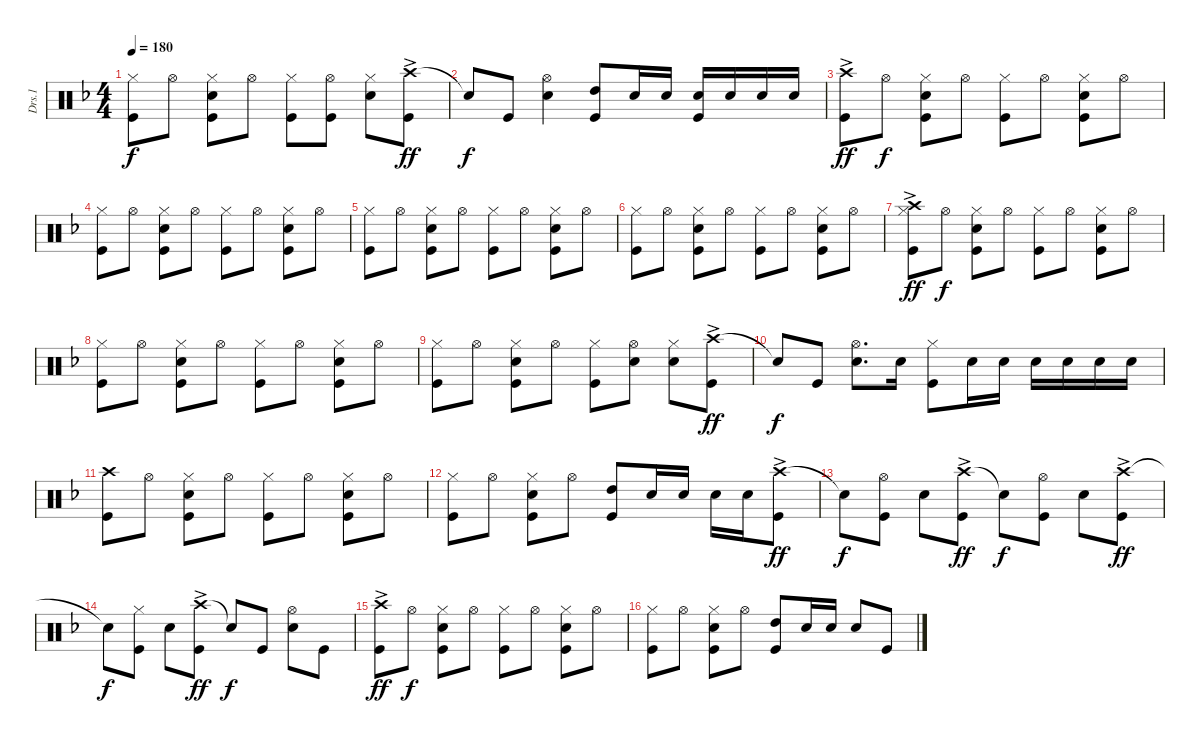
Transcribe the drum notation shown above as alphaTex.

\track ("Drs.1" "Drs.1") {instrument percussion}
\staff {score}
\articulation defaults
\ts (4 4)
\tempo 180
\clef neutral
\ks f
("Hi-Hat (closed)" "Kick (hit)").8{dy f} "Hi-Hat (open)".8 ("Hi-Hat (closed)" "Snare (hit) 2" "Kick (hit)").8 "Hi-Hat (open)".8 ("Hi-Hat (closed)" "Kick (hit)").8 ("Hi-Hat (open)" "Kick (hit)").8 ("Hi-Hat (closed)" "Snare (hit) 2").8 ("Crash high (hit)"{ac} "Kick (hit)").8{dy ff} |
"Snare (hit)"{t}.8{dy f} "Kick (hit)".8 ("Hi-Hat (open)" "Snare (hit) 2").4 ("High Tom (hit)" "Kick (hit)").8 "Snare (hit) 2".16 "Snare (hit) 2".16 ("Snare (hit) 2" "Kick (hit)").16 "Snare (hit) 2".16 "Snare (hit) 2".16 "Snare (hit) 2".16 |
("Crash high (hit)"{ac} "Kick (hit)").8{dy ff} "Hi-Hat (open)".8{dy f} ("Hi-Hat (closed)" "Snare (hit) 2" "Kick (hit)").8 "Hi-Hat (open)".8 ("Hi-Hat (closed)" "Kick (hit)").8 "Hi-Hat (open)".8 ("Hi-Hat (closed)" "Snare (hit) 2" "Kick (hit)").8 "Hi-Hat (open)".8 |
("Hi-Hat (closed)" "Kick (hit)").8 "Hi-Hat (open)".8 ("Hi-Hat (closed)" "Snare (hit) 2" "Kick (hit)").8 "Hi-Hat (open)".8 ("Hi-Hat (closed)" "Kick (hit)").8 "Hi-Hat (open)".8 ("Hi-Hat (closed)" "Snare (hit) 2" "Kick (hit)").8 "Hi-Hat (open)".8 |
("Hi-Hat (closed)" "Kick (hit)").8 "Hi-Hat (open)".8 ("Hi-Hat (closed)" "Snare (hit) 2" "Kick (hit)").8 "Hi-Hat (open)".8 ("Hi-Hat (closed)" "Kick (hit)").8 "Hi-Hat (open)".8 ("Hi-Hat (closed)" "Snare (hit) 2" "Kick (hit)").8 "Hi-Hat (open)".8 |
("Hi-Hat (closed)" "Kick (hit)").8 "Hi-Hat (open)".8 ("Hi-Hat (closed)" "Snare (hit) 2" "Kick (hit)").8 "Hi-Hat (open)".8 ("Hi-Hat (closed)" "Kick (hit)").8 "Hi-Hat (open)".8 ("Hi-Hat (closed)" "Snare (hit) 2" "Kick (hit)").8 "Hi-Hat (open)".8 |
("Hi-Hat (closed)" "Crash high (hit)"{ac} "Kick (hit)").8{dy ff} "Hi-Hat (open)".8{dy f} ("Hi-Hat (closed)" "Snare (hit) 2" "Kick (hit)").8 "Hi-Hat (open)".8 ("Hi-Hat (closed)" "Kick (hit)").8 "Hi-Hat (open)".8 ("Hi-Hat (closed)" "Snare (hit) 2" "Kick (hit)").8 "Hi-Hat (open)".8 |
("Hi-Hat (closed)" "Kick (hit)").8 "Hi-Hat (open)".8 ("Hi-Hat (closed)" "Snare (hit) 2" "Kick (hit)").8 "Hi-Hat (open)".8 ("Hi-Hat (closed)" "Kick (hit)").8 "Hi-Hat (open)".8 ("Hi-Hat (closed)" "Snare (hit) 2" "Kick (hit)").8 "Hi-Hat (open)".8 |
("Hi-Hat (closed)" "Kick (hit)").8 "Hi-Hat (open)".8 ("Hi-Hat (closed)" "Snare (hit) 2" "Kick (hit)").8 "Hi-Hat (open)".8 ("Hi-Hat (closed)" "Kick (hit)").8 ("Hi-Hat (open)" "Snare (hit) 2").8 ("Hi-Hat (closed)" "Snare (hit) 2").8 ("Crash high (hit)"{ac} "Kick (hit)").8{dy ff} |
"Snare (hit)"{t}.8{dy f} "Kick (hit)".8 ("Hi-Hat (open)" "Snare (hit) 2").8{d} "Snare (hit) 2".16 ("Hi-Hat (closed)" "Kick (hit)").8 "Snare (hit) 2".16 "Snare (hit) 2".16 "Snare (hit) 2".16 "Snare (hit) 2".16 "Snare (hit) 2".16 "Snare (hit) 2".16 |
("Crash high (hit)" "Kick (hit)").8 "Hi-Hat (open)".8 ("Hi-Hat (closed)" "Snare (hit) 2" "Kick (hit)").8 "Hi-Hat (open)".8 ("Hi-Hat (closed)" "Kick (hit)").8 "Hi-Hat (open)".8 ("Hi-Hat (closed)" "Snare (hit) 2" "Kick (hit)").8 "Hi-Hat (open)".8 |
("Hi-Hat (closed)" "Kick (hit)").8 "Hi-Hat (open)".8 ("Hi-Hat (closed)" "Snare (hit) 2" "Kick (hit)").8 "Hi-Hat (open)".8 ("High Tom (hit)" "Kick (hit)").8 "Snare (hit) 2".16 "Snare (hit) 2".16 "Snare (hit) 2".16 "Snare (hit) 2".16 ("Crash high (hit)"{ac} "Kick (hit)").8{dy ff} |
"Snare (hit)"{t}.8{dy f} ("Hi-Hat (open)" "Kick (hit)").8 "Snare (hit) 2".8 ("Crash high (hit)"{ac} "Kick (hit)").8{dy ff} "Snare (hit)"{t}.8{dy f} ("Hi-Hat (open)" "Kick (hit)").8 "Snare (hit) 2".8 ("Crash high (hit)"{ac} "Kick (hit)").8{dy ff} |
"Snare (hit)"{t}.8{dy f} ("Hi-Hat (closed)" "Kick (hit)").8 "Snare (hit) 2".8 ("Crash high (hit)"{ac} "Kick (hit)").8{dy ff} "Snare (hit)"{t}.8{dy f} "Kick (hit)".8 ("Hi-Hat (open)" "Snare (hit) 2").8 "Kick (hit)".8 |
("Crash high (hit)"{ac} "Kick (hit)").8{dy ff} "Hi-Hat (open)".8{dy f} ("Hi-Hat (closed)" "Snare (hit) 2" "Kick (hit)").8 "Hi-Hat (open)".8 ("Hi-Hat (closed)" "Kick (hit)").8 "Hi-Hat (open)".8 ("Hi-Hat (closed)" "Snare (hit) 2" "Kick (hit)").8 "Hi-Hat (open)".8 |
("Hi-Hat (closed)" "Kick (hit)").8 "Hi-Hat (open)".8 ("Hi-Hat (closed)" "Snare (hit) 2" "Kick (hit)").8 "Hi-Hat (open)".8 ("High Tom (hit)" "Kick (hit)").8 "Snare (hit) 2".16 "Snare (hit) 2".16 "Snare (hit) 2".8 "Kick (hit)".8
